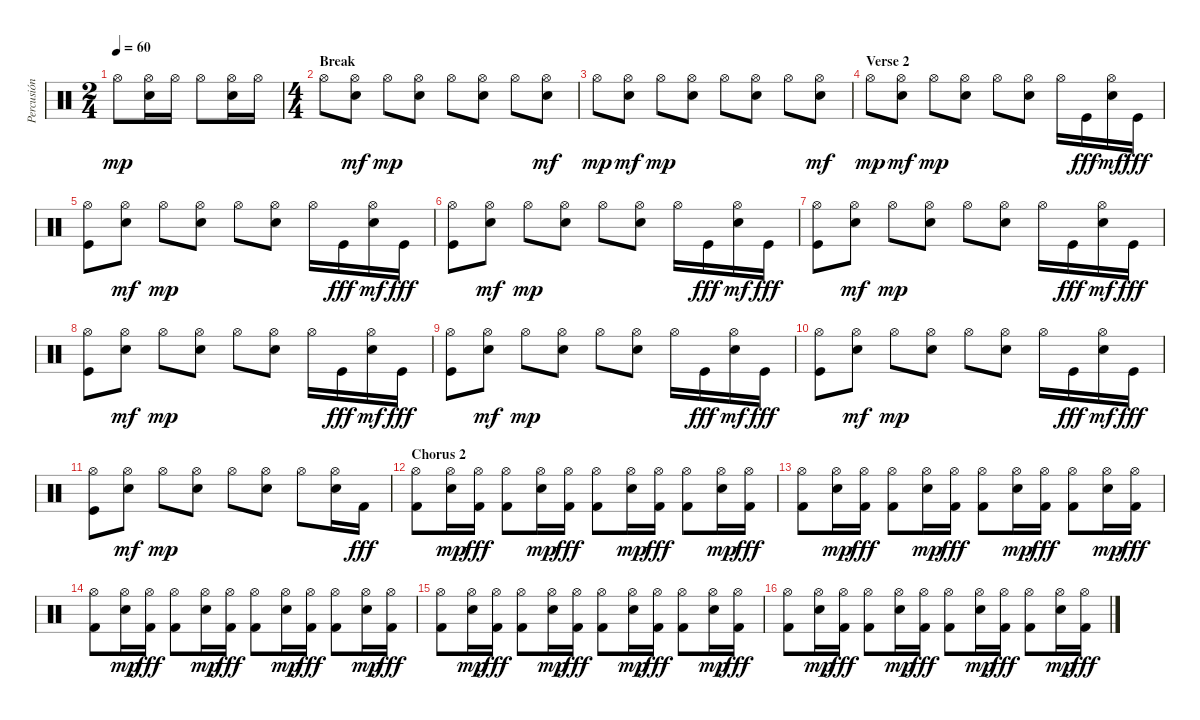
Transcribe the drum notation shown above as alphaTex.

\track ("Percusión" "Percusión") {instrument percussion}
\staff {score}
\articulation defaults
\ts (2 4)
\tempo 60
\clef neutral
\ks c "Hi-Hat (open)".8{dy mp}
("Hi-Hat (open)" "Snare (hit) 2").16 "Hi-Hat (open)".16 "Hi-Hat (open)".8 ("Hi-Hat (open)" "Snare (hit) 2").16 "Hi-Hat (open)".16 |
\ts (4 4)
\section ("" "Break")
"Hi-Hat (open)".8 ("Hi-Hat (open)" "Snare (hit) 2").8{dy mf} "Hi-Hat (open)".8{dy mp} ("Hi-Hat (open)" "Snare (hit) 2").8 "Hi-Hat (open)".8 ("Hi-Hat (open)" "Snare (hit) 2").8 "Hi-Hat (open)".8 ("Hi-Hat (open)" "Snare (hit) 2").8{dy mf} |
"Hi-Hat (open)".8{dy mp} ("Hi-Hat (open)" "Snare (hit) 2").8{dy mf} "Hi-Hat (open)".8{dy mp} ("Hi-Hat (open)" "Snare (hit) 2").8 "Hi-Hat (open)".8 ("Hi-Hat (open)" "Snare (hit) 2").8 "Hi-Hat (open)".8 ("Hi-Hat (open)" "Snare (hit) 2").8{dy mf} |
\section ("" "Verse 2")
"Hi-Hat (open)".8{dy mp} ("Hi-Hat (open)" "Snare (hit) 2").8{dy mf} "Hi-Hat (open)".8{dy mp} ("Hi-Hat (open)" "Snare (hit) 2").8 "Hi-Hat (open)".8 ("Hi-Hat (open)" "Snare (hit) 2").8 "Hi-Hat (open)".16 "Kick (hit)".16{dy fff} ("Hi-Hat (open)" "Snare (hit) 2").16{dy mf} "Kick (hit)".16{dy fff} |
("Hi-Hat (open)" "Kick (hit)").8 ("Hi-Hat (open)" "Snare (hit) 2").8{dy mf} "Hi-Hat (open)".8{dy mp} ("Hi-Hat (open)" "Snare (hit) 2").8 "Hi-Hat (open)".8 ("Hi-Hat (open)" "Snare (hit) 2").8 "Hi-Hat (open)".16 "Kick (hit)".16{dy fff} ("Hi-Hat (open)" "Snare (hit) 2").16{dy mf} "Kick (hit)".16{dy fff} |
("Hi-Hat (open)" "Kick (hit)").8 ("Hi-Hat (open)" "Snare (hit) 2").8{dy mf} "Hi-Hat (open)".8{dy mp} ("Hi-Hat (open)" "Snare (hit) 2").8 "Hi-Hat (open)".8 ("Hi-Hat (open)" "Snare (hit) 2").8 "Hi-Hat (open)".16 "Kick (hit)".16{dy fff} ("Hi-Hat (open)" "Snare (hit) 2").16{dy mf} "Kick (hit)".16{dy fff} |
("Hi-Hat (open)" "Kick (hit)").8 ("Hi-Hat (open)" "Snare (hit) 2").8{dy mf} "Hi-Hat (open)".8{dy mp} ("Hi-Hat (open)" "Snare (hit) 2").8 "Hi-Hat (open)".8 ("Hi-Hat (open)" "Snare (hit) 2").8 "Hi-Hat (open)".16 "Kick (hit)".16{dy fff} ("Hi-Hat (open)" "Snare (hit) 2").16{dy mf} "Kick (hit)".16{dy fff} |
("Hi-Hat (open)" "Kick (hit)").8 ("Hi-Hat (open)" "Snare (hit) 2").8{dy mf} "Hi-Hat (open)".8{dy mp} ("Hi-Hat (open)" "Snare (hit) 2").8 "Hi-Hat (open)".8 ("Hi-Hat (open)" "Snare (hit) 2").8 "Hi-Hat (open)".16 "Kick (hit)".16{dy fff} ("Hi-Hat (open)" "Snare (hit) 2").16{dy mf} "Kick (hit)".16{dy fff} |
("Hi-Hat (open)" "Kick (hit)").8 ("Hi-Hat (open)" "Snare (hit) 2").8{dy mf} "Hi-Hat (open)".8{dy mp} ("Hi-Hat (open)" "Snare (hit) 2").8 "Hi-Hat (open)".8 ("Hi-Hat (open)" "Snare (hit) 2").8 "Hi-Hat (open)".16 "Kick (hit)".16{dy fff} ("Hi-Hat (open)" "Snare (hit) 2").16{dy mf} "Kick (hit)".16{dy fff} |
("Hi-Hat (open)" "Kick (hit)").8 ("Hi-Hat (open)" "Snare (hit) 2").8{dy mf} "Hi-Hat (open)".8{dy mp} ("Hi-Hat (open)" "Snare (hit) 2").8 "Hi-Hat (open)".8 ("Hi-Hat (open)" "Snare (hit) 2").8 "Hi-Hat (open)".16 "Kick (hit)".16{dy fff} ("Hi-Hat (open)" "Snare (hit) 2").16{dy mf} "Kick (hit)".16{dy fff} |
("Hi-Hat (open)" "Kick (hit)").8 ("Hi-Hat (open)" "Snare (hit) 2").8{dy mf} "Hi-Hat (open)".8{dy mp} ("Hi-Hat (open)" "Snare (hit) 2").8 "Hi-Hat (open)".8 ("Hi-Hat (open)" "Snare (hit) 2").8 "Hi-Hat (open)".8 ("Hi-Hat (open)" "Snare (hit) 2").16 "Kick (hit) 2".16{dy fff} |
\section ("" "Chorus 2")
("Hi-Hat (open)" "Kick (hit) 2").8 ("Hi-Hat (open)" "Snare (hit) 2").16{dy mp} ("Hi-Hat (open)" "Kick (hit) 2").16{dy fff} ("Hi-Hat (open)" "Kick (hit) 2").8 ("Hi-Hat (open)" "Snare (hit) 2").16{dy mp} ("Hi-Hat (open)" "Kick (hit) 2").16{dy fff} ("Hi-Hat (open)" "Kick (hit) 2").8 ("Hi-Hat (open)" "Snare (hit) 2").16{dy mp} ("Hi-Hat (open)" "Kick (hit) 2").16{dy fff} ("Hi-Hat (open)" "Kick (hit) 2").8 ("Hi-Hat (open)" "Snare (hit) 2").16{dy mp} ("Hi-Hat (open)" "Kick (hit) 2").16{dy fff} |
("Hi-Hat (open)" "Kick (hit) 2").8 ("Hi-Hat (open)" "Snare (hit) 2").16{dy mp} ("Hi-Hat (open)" "Kick (hit) 2").16{dy fff} ("Hi-Hat (open)" "Kick (hit) 2").8 ("Hi-Hat (open)" "Snare (hit) 2").16{dy mp} ("Hi-Hat (open)" "Kick (hit) 2").16{dy fff} ("Hi-Hat (open)" "Kick (hit) 2").8 ("Hi-Hat (open)" "Snare (hit) 2").16{dy mp} ("Hi-Hat (open)" "Kick (hit) 2").16{dy fff} ("Hi-Hat (open)" "Kick (hit) 2").8 ("Hi-Hat (open)" "Snare (hit) 2").16{dy mp} ("Hi-Hat (open)" "Kick (hit) 2").16{dy fff} |
("Hi-Hat (open)" "Kick (hit) 2").8 ("Hi-Hat (open)" "Snare (hit) 2").16{dy mp} ("Hi-Hat (open)" "Kick (hit) 2").16{dy fff} ("Hi-Hat (open)" "Kick (hit) 2").8 ("Hi-Hat (open)" "Snare (hit) 2").16{dy mp} ("Hi-Hat (open)" "Kick (hit) 2").16{dy fff} ("Hi-Hat (open)" "Kick (hit) 2").8 ("Hi-Hat (open)" "Snare (hit) 2").16{dy mp} ("Hi-Hat (open)" "Kick (hit) 2").16{dy fff} ("Hi-Hat (open)" "Kick (hit) 2").8 ("Hi-Hat (open)" "Snare (hit) 2").16{dy mp} ("Hi-Hat (open)" "Kick (hit) 2").16{dy fff} |
("Hi-Hat (open)" "Kick (hit) 2").8 ("Hi-Hat (open)" "Snare (hit) 2").16{dy mp} ("Hi-Hat (open)" "Kick (hit) 2").16{dy fff} ("Hi-Hat (open)" "Kick (hit) 2").8 ("Hi-Hat (open)" "Snare (hit) 2").16{dy mp} ("Hi-Hat (open)" "Kick (hit) 2").16{dy fff} ("Hi-Hat (open)" "Kick (hit) 2").8 ("Hi-Hat (open)" "Snare (hit) 2").16{dy mp} ("Hi-Hat (open)" "Kick (hit) 2").16{dy fff} ("Hi-Hat (open)" "Kick (hit) 2").8 ("Hi-Hat (open)" "Snare (hit) 2").16{dy mp} ("Hi-Hat (open)" "Kick (hit) 2").16{dy fff} |
("Hi-Hat (open)" "Kick (hit) 2").8 ("Hi-Hat (open)" "Snare (hit) 2").16{dy mp} ("Hi-Hat (open)" "Kick (hit) 2").16{dy fff} ("Hi-Hat (open)" "Kick (hit) 2").8 ("Hi-Hat (open)" "Snare (hit) 2").16{dy mp} ("Hi-Hat (open)" "Kick (hit) 2").16{dy fff} ("Hi-Hat (open)" "Kick (hit) 2").8 ("Hi-Hat (open)" "Snare (hit) 2").16{dy mp} ("Hi-Hat (open)" "Kick (hit) 2").16{dy fff} ("Hi-Hat (open)" "Kick (hit) 2").8 ("Hi-Hat (open)" "Snare (hit) 2").16{dy mp} ("Hi-Hat (open)" "Kick (hit) 2").16{dy fff}
